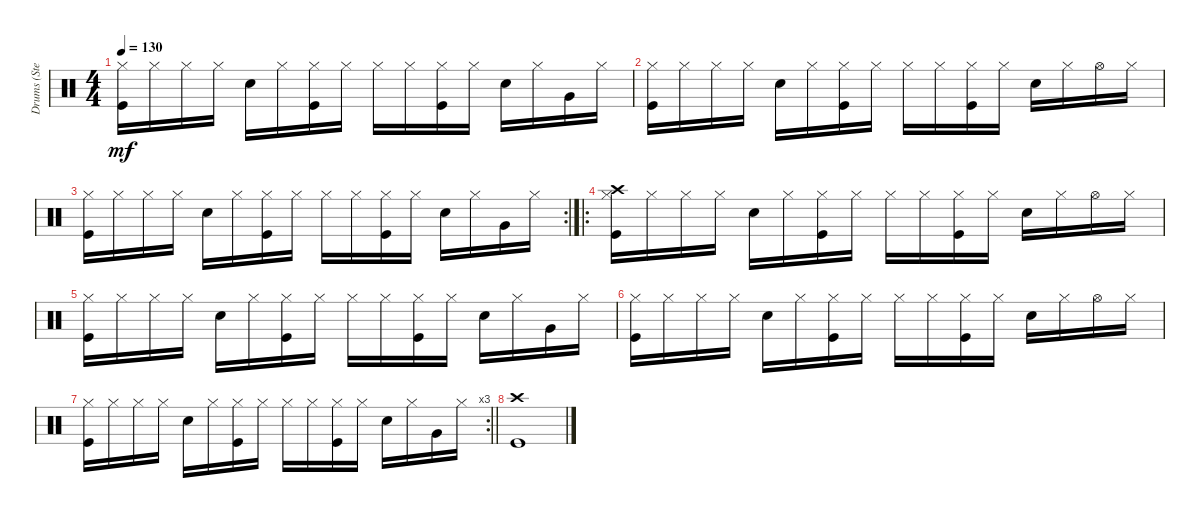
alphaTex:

\track ("Drums (Stephen Morris)" "Drums (Ste") {instrument percussion}
\staff {score}
\articulation defaults
\ts (4 4)
\tempo 130
\clef neutral
\ks c
("Hi-Hat (closed)" "Kick (hit)").16{dy mf} "Hi-Hat (closed)".16 "Hi-Hat (closed)".16 "Hi-Hat (closed)".16 "Snare (hit) 2".16 "Hi-Hat (closed)".16 ("Hi-Hat (closed)" "Kick (hit)").16 "Hi-Hat (closed)".16 "Hi-Hat (closed)".16 "Hi-Hat (closed)".16 ("Hi-Hat (closed)" "Kick (hit)").16 "Hi-Hat (closed)".16 "Snare (hit) 2".16 "Hi-Hat (closed)".16 "Very Low Tom (hit)".16 "Hi-Hat (closed)".16 |
("Kick (hit)" "Hi-Hat (closed)").16 "Hi-Hat (closed)".16 "Hi-Hat (closed)".16 "Hi-Hat (closed)".16 "Snare (hit) 2".16 "Hi-Hat (closed)".16 ("Hi-Hat (closed)" "Kick (hit)").16 "Hi-Hat (closed)".16 "Hi-Hat (closed)".16 "Hi-Hat (closed)".16 ("Hi-Hat (closed)" "Kick (hit)").16 "Hi-Hat (closed)".16 "Snare (hit) 2".16 "Hi-Hat (closed)".16 "Hi-Hat (open)".16 "Hi-Hat (closed)".16 |
\rc 2
("Hi-Hat (closed)" "Kick (hit)").16 "Hi-Hat (closed)".16 "Hi-Hat (closed)".16 "Hi-Hat (closed)".16 "Snare (hit) 2".16 "Hi-Hat (closed)".16 ("Hi-Hat (closed)" "Kick (hit)").16 "Hi-Hat (closed)".16 "Hi-Hat (closed)".16 "Hi-Hat (closed)".16 ("Kick (hit)" "Hi-Hat (closed)").16 "Hi-Hat (closed)".16 "Snare (hit) 2".16 "Hi-Hat (closed)".16 "Very Low Tom (hit)".16 "Hi-Hat (closed)".16 |
\ro
("Hi-Hat (closed)" "Crash high (hit)" "Kick (hit)").16 "Hi-Hat (closed)".16 "Hi-Hat (closed)".16 "Hi-Hat (closed)".16 "Snare (hit) 2".16 "Hi-Hat (closed)".16 ("Kick (hit)" "Hi-Hat (closed)").16 "Hi-Hat (closed)".16 "Hi-Hat (closed)".16 "Hi-Hat (closed)".16 ("Kick (hit)" "Hi-Hat (closed)").16 "Hi-Hat (closed)".16 "Snare (hit) 2".16 "Hi-Hat (closed)".16 "Hi-Hat (open)".16 "Hi-Hat (closed)".16 |
("Hi-Hat (closed)" "Kick (hit)").16 "Hi-Hat (closed)".16 "Hi-Hat (closed)".16 "Hi-Hat (closed)".16 "Snare (hit) 2".16 "Hi-Hat (closed)".16 ("Hi-Hat (closed)" "Kick (hit)").16 "Hi-Hat (closed)".16 "Hi-Hat (closed)".16 "Hi-Hat (closed)".16 ("Hi-Hat (closed)" "Kick (hit)").16 "Hi-Hat (closed)".16 "Snare (hit) 2".16 "Hi-Hat (closed)".16 "Very Low Tom (hit)".16 "Hi-Hat (closed)".16 |
("Kick (hit)" "Hi-Hat (closed)").16 "Hi-Hat (closed)".16 "Hi-Hat (closed)".16 "Hi-Hat (closed)".16 "Snare (hit) 2".16 "Hi-Hat (closed)".16 ("Hi-Hat (closed)" "Kick (hit)").16 "Hi-Hat (closed)".16 "Hi-Hat (closed)".16 "Hi-Hat (closed)".16 ("Hi-Hat (closed)" "Kick (hit)").16 "Hi-Hat (closed)".16 "Snare (hit) 2".16 "Hi-Hat (closed)".16 "Hi-Hat (open)".16 "Hi-Hat (closed)".16 |
\rc 3
\barLineRight lightlight
("Hi-Hat (closed)" "Kick (hit)").16 "Hi-Hat (closed)".16 "Hi-Hat (closed)".16 "Hi-Hat (closed)".16 "Snare (hit) 2".16 "Hi-Hat (closed)".16 ("Hi-Hat (closed)" "Kick (hit)").16 "Hi-Hat (closed)".16 "Hi-Hat (closed)".16 "Hi-Hat (closed)".16 ("Kick (hit)" "Hi-Hat (closed)").16 "Hi-Hat (closed)".16 "Snare (hit) 2".16 "Hi-Hat (closed)".16 "Very Low Tom (hit)".16 "Hi-Hat (closed)".16 |
("Kick (hit)" "Crash high (hit)").1
